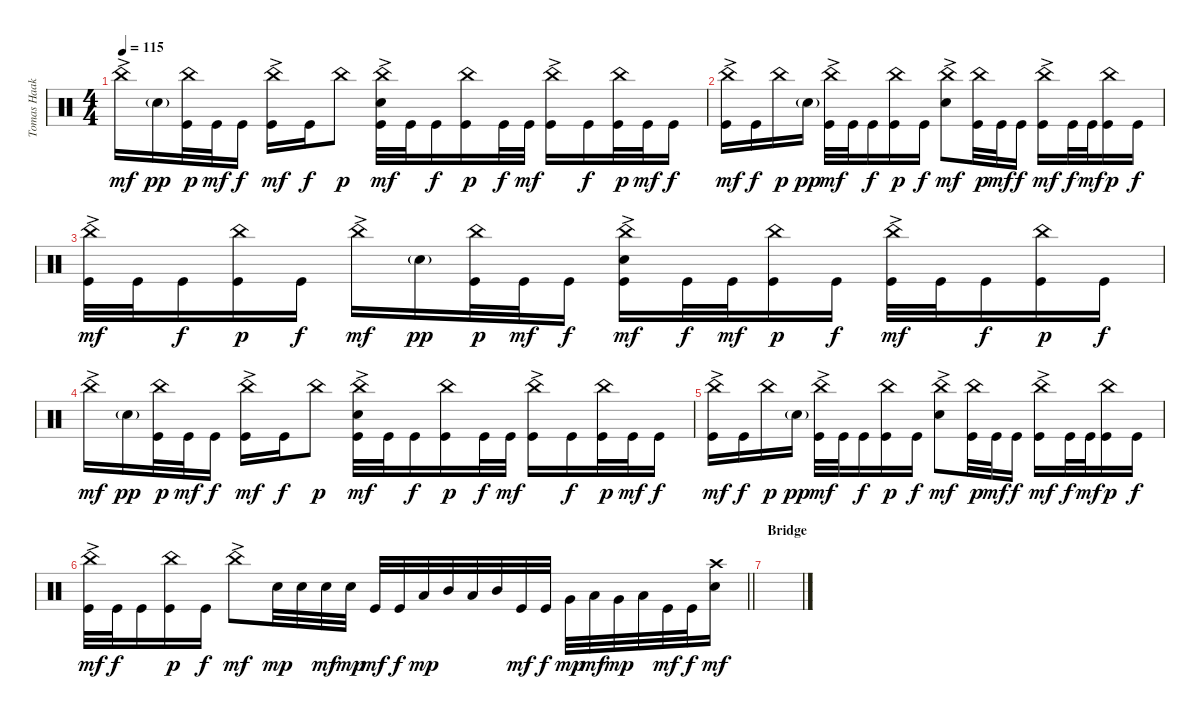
\track ("Tomas Haake (Drums)" "Tomas Haak") {instrument percussion}
\staff {score}
\articulation defaults
\ts (4 4)
\tempo 115
\clef neutral
\ks c "China (hit)"{ac}.16{dy mf} "Electric Snare (hit)"{g}.16{dy pp}
("China (hit)" "Kick (hit)").32{dy p} "Kick (hit)".32{dy mf} "Kick (hit)".16{dy f} ("China (hit)"{ac} "Kick (hit)").16{dy mf} "Kick (hit)".16{dy f} "China (hit)".8{dy p} ("China (hit)"{ac} "Electric Snare (hit)" "Kick (hit)").32{dy mf} "Kick (hit)".32 "Kick (hit)".16{dy f} ("China (hit)" "Kick (hit)").16{dy p} "Kick (hit)".32{dy f} "Kick (hit)".32{dy mf} ("China (hit)"{ac} "Kick (hit)").16 "Kick (hit)".16{dy f} ("China (hit)" "Kick (hit)").32{dy p} "Kick (hit)".32{dy mf} "Kick (hit)".16{dy f} |
("China (hit)"{ac} "Kick (hit)").16{dy mf} "Kick (hit)".16{dy f} "China (hit)".16{dy p} "Electric Snare (hit)"{g}.16{dy pp} ("China (hit)"{ac} "Kick (hit)").32{dy mf} "Kick (hit)".32 "Kick (hit)".16{dy f} ("China (hit)" "Kick (hit)").16{dy p} "Kick (hit)".16{dy f} ("China (hit)"{ac} "Electric Snare (hit)").8{dy mf} ("China (hit)" "Kick (hit)").32{dy p} "Kick (hit)".32{dy mf} "Kick (hit)".16{dy f} ("China (hit)"{ac} "Kick (hit)").16{dy mf} "Kick (hit)".32{dy f} "Kick (hit)".32{dy mf} ("China (hit)" "Kick (hit)").16{dy p} "Kick (hit)".16{dy f} |
("China (hit)"{ac} "Kick (hit)").32{dy mf} "Kick (hit)".32 "Kick (hit)".16{dy f} ("China (hit)" "Kick (hit)").16{dy p} "Kick (hit)".16{dy f} "China (hit)"{ac}.16{dy mf} "Electric Snare (hit)"{g}.16{dy pp} ("China (hit)" "Kick (hit)").32{dy p} "Kick (hit)".32{dy mf} "Kick (hit)".16{dy f} ("China (hit)"{ac} "Electric Snare (hit)" "Kick (hit)").16{dy mf} "Kick (hit)".32{dy f} "Kick (hit)".32{dy mf} ("China (hit)" "Kick (hit)").16{dy p} "Kick (hit)".16{dy f} ("China (hit)"{ac} "Kick (hit)").32{dy mf} "Kick (hit)".32 "Kick (hit)".16{dy f} ("China (hit)" "Kick (hit)").16{dy p} "Kick (hit)".16{dy f} |
"China (hit)"{ac}.16{dy mf} "Electric Snare (hit)"{g}.16{dy pp} ("China (hit)" "Kick (hit)").32{dy p} "Kick (hit)".32{dy mf} "Kick (hit)".16{dy f} ("China (hit)"{ac} "Kick (hit)").16{dy mf} "Kick (hit)".16{dy f} "China (hit)".8{dy p} ("China (hit)"{ac} "Electric Snare (hit)" "Kick (hit)").32{dy mf} "Kick (hit)".32 "Kick (hit)".16{dy f} ("China (hit)" "Kick (hit)").16{dy p} "Kick (hit)".32{dy f} "Kick (hit)".32{dy mf} ("China (hit)"{ac} "Kick (hit)").16 "Kick (hit)".16{dy f} ("China (hit)" "Kick (hit)").32{dy p} "Kick (hit)".32{dy mf} "Kick (hit)".16{dy f} |
("China (hit)"{ac} "Kick (hit)").16{dy mf} "Kick (hit)".16{dy f} "China (hit)".16{dy p} "Electric Snare (hit)"{g}.16{dy pp} ("China (hit)"{ac} "Kick (hit)").32{dy mf} "Kick (hit)".32 "Kick (hit)".16{dy f} ("China (hit)" "Kick (hit)").16{dy p} "Kick (hit)".16{dy f} ("China (hit)"{ac} "Electric Snare (hit)").8{dy mf} ("China (hit)" "Kick (hit)").32{dy p} "Kick (hit)".32{dy mf} "Kick (hit)".16{dy f} ("China (hit)"{ac} "Kick (hit)").16{dy mf} "Kick (hit)".32{dy f} "Kick (hit)".32{dy mf} ("China (hit)" "Kick (hit)").16{dy p} "Kick (hit)".16{dy f} |
\barLineRight lightlight
("China (hit)"{ac} "Kick (hit)").32{dy mf} "Kick (hit)".32{dy f} "Kick (hit)".16 ("China (hit)" "Kick (hit)").16{dy p} "Kick (hit)".16{dy f} "China (hit)"{ac}.8{dy mf} "Electric Snare (hit)".32{dy mp} "Electric Snare (hit)".32 "Electric Snare (hit)".32{dy mf} "Electric Snare (hit)".32{dy mp} "Kick (hit)".32{dy mf} "Kick (hit)".32{dy f} "Low Tom (hit)".32{dy mp} "Mid Tom (hit)".32 "Low Tom (hit)".32 "Mid Tom (hit)".32 "Kick (hit)".32{dy mf} "Kick (hit)".32{dy f} "Very Low Tom (hit)".32{dy mp} "Low Tom (hit)".32{dy mf} "Very Low Tom (hit)".32{dy mp} "Low Tom (hit)".32 "Kick (hit)".32{dy mf} "Kick (hit)".32{dy f} ("Crash high (hit)" "Electric Snare (hit)").16{dy mf} |
\section ("" "Bridge")
